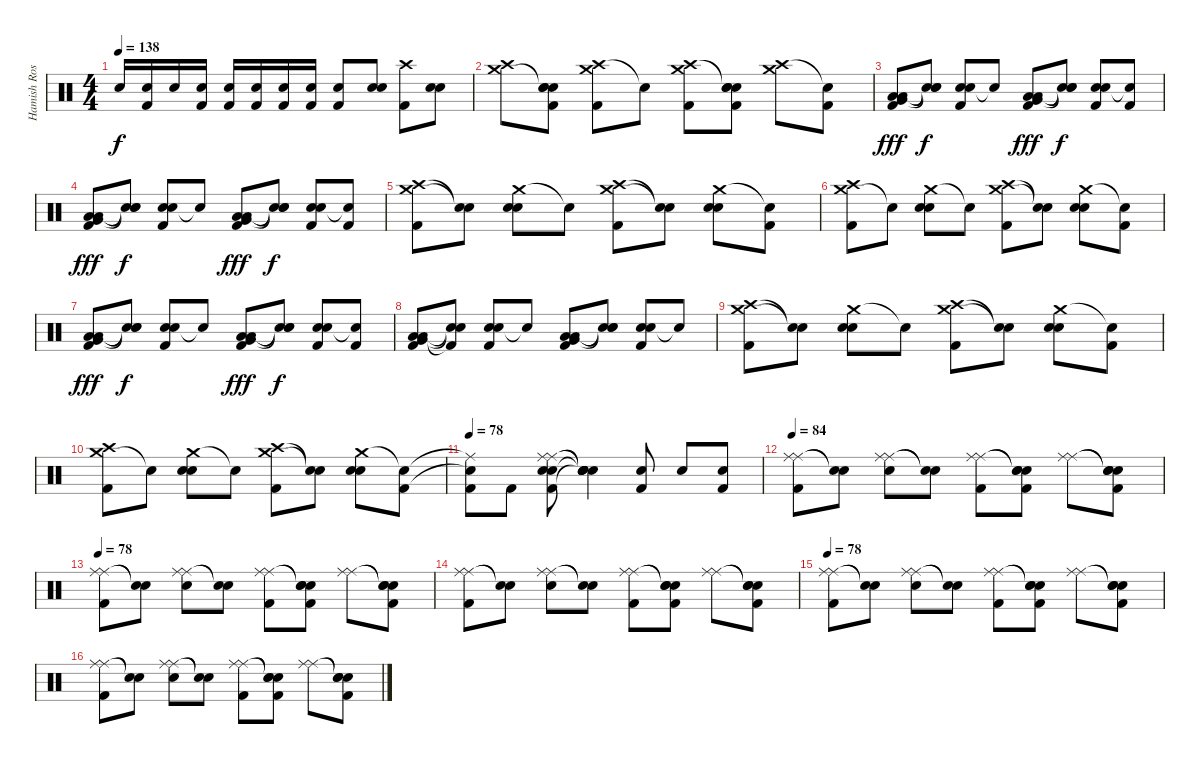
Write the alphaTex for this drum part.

\track ("Hamish Rosser" "Hamish Ros") {instrument percussion}
\staff {score}
\articulation defaults
\ts (4 4)
\tempo 138
\clef neutral
\ks c "Snare (hit) 2".16{dy f}
("Snare (hit) 2" "Kick (hit) 2").16 "Snare (hit) 2".16 ("Snare (hit) 2" "Kick (hit) 2").16 ("Snare (hit) 2" "Kick (hit) 2").16 ("Snare (hit) 2" "Kick (hit) 2").16 ("Snare (hit) 2" "Kick (hit) 2").16 ("Snare (hit) 2" "Kick (hit) 2").16 ("Snare (hit) 2" "Kick (hit) 2").8 ("Snare (hit) 2" "Snare (hit) 2").8 ("Crash high (hit)" "Kick (hit) 2").8 ("Snare (hit) 2" "Snare (hit) 2").8 |
("Crash medium (hit)" "Crash high (hit)").8 ("Snare (hit)"{t} "Snare (hit) 2" "Snare (hit) 2" "Kick (hit) 2").8 ("Crash high (hit)" "Crash medium (hit)" "Kick (hit) 2").8 "Snare (hit)"{t}.8 ("Crash high (hit)" "Crash medium (hit)" "Kick (hit) 2").8 ("Snare (hit)"{t} "Snare (hit) 2" "Snare (hit) 2" "Kick (hit) 2").8 ("Crash high (hit)" "Crash medium (hit)").8 ("Snare (hit)"{t} "Kick (hit) 2").8 |
("Very Low Tom (hit)" "Low Tom (hit)" "Low Tom (hit)" "Kick (hit) 2").8{dy fff} ("Snare (hit)"{t} "Snare (hit)"{t} "Snare (hit)"{t}).8{dy f} ("Snare (hit) 2" "Snare (hit) 2" "Kick (hit) 2").8 "Snare (hit)"{t}.8 ("Very Low Tom (hit)" "Low Tom (hit)" "Low Tom (hit)" "Kick (hit) 2").8{dy fff} ("Snare (hit)"{t} "Snare (hit) 2"{t} "Snare (hit)"{t}).8{dy f} ("Snare (hit) 2" "Snare (hit) 2" "Kick (hit) 2").8 ("Snare (hit)"{t} "Kick (hit) 2").8 |
("Very Low Tom (hit)" "Low Tom (hit)" "Low Tom (hit)" "Kick (hit) 2").8{dy fff} ("Snare (hit)"{t} "Snare (hit)"{t} "Snare (hit)"{t}).8{dy f} ("Snare (hit) 2" "Snare (hit) 2" "Kick (hit) 2").8 "Snare (hit)"{t}.8 ("Very Low Tom (hit)" "Low Tom (hit)" "Low Tom (hit)" "Kick (hit) 2").8{dy fff} ("Snare (hit)"{t} "Snare (hit) 2"{t} "Snare (hit)"{t}).8{dy f} ("Snare (hit) 2" "Snare (hit) 2" "Kick (hit) 2").8 ("Snare (hit)"{t} "Kick (hit) 2").8 |
("Crash medium (hit)" "Crash high (hit)" "Kick (hit) 2").8 ("Snare (hit)"{t} "Snare (hit)"{t}).8 ("Crash medium (hit)" "Snare (hit) 2" "Snare (hit) 2").8 "Snare (hit)"{t}.8 ("Crash medium (hit)" "Crash high (hit)" "Kick (hit) 2").8 ("Snare (hit)"{t} "Snare (hit)"{t}).8 ("Crash medium (hit)" "Snare (hit) 2" "Snare (hit) 2").8 ("Snare (hit)"{t} "Kick (hit) 2").8 |
("Crash medium (hit)" "Crash high (hit)" "Kick (hit) 2").8 "Snare (hit)"{t}.8 ("Crash medium (hit)" "Snare (hit) 2" "Snare (hit) 2").8 "Snare (hit)"{t}.8 ("Crash medium (hit)" "Crash high (hit)" "Kick (hit) 2").8 ("Snare (hit)"{t} "Snare (hit)"{t}).8 ("Crash medium (hit)" "Snare (hit) 2" "Snare (hit) 2").8 ("Snare (hit)"{t} "Kick (hit) 2").8 |
("Very Low Tom (hit)" "Low Tom (hit)" "Low Tom (hit)" "Kick (hit) 2").8{dy fff} ("Snare (hit)"{t} "Snare (hit)"{t} "Snare (hit)"{t}).8{dy f} ("Snare (hit) 2" "Snare (hit) 2" "Kick (hit) 2").8 "Snare (hit)"{t}.8 ("Very Low Tom (hit)" "Low Tom (hit)" "Low Tom (hit)" "Kick (hit) 2").8{dy fff} ("Snare (hit)"{t} "Snare (hit) 2"{t} "Snare (hit)"{t}).8{dy f} ("Snare (hit) 2" "Snare (hit) 2" "Kick (hit) 2").8 ("Snare (hit)"{t} "Kick (hit) 2").8 |
("Very Low Tom (hit)" "Low Tom (hit)" "Low Tom (hit)" "Kick (hit) 2").8 ("Snare (hit)"{t} "Snare (hit)"{t} "Kick (hit) 2"{t}).8 ("Snare (hit) 2" "Snare (hit) 2" "Kick (hit) 2").8 "Snare (hit)"{t}.8 ("Very Low Tom (hit)" "Low Tom (hit)" "Low Tom (hit)" "Kick (hit) 2").8 ("Snare (hit)"{t} "Snare (hit) 2"{t} "Snare (hit)"{t}).8 ("Snare (hit) 2" "Snare (hit) 2" "Kick (hit) 2").8 "Snare (hit)"{t}.8 |
("Crash medium (hit)" "Crash high (hit)" "Kick (hit) 2").8 ("Snare (hit)"{t} "Snare (hit)"{t}).8 ("Crash medium (hit)" "Snare (hit) 2" "Snare (hit) 2").8 "Snare (hit)"{t}.8 ("Crash medium (hit)" "Crash high (hit)" "Kick (hit) 2").8 ("Snare (hit)"{t} "Snare (hit)"{t}).8 ("Crash medium (hit)" "Snare (hit) 2" "Snare (hit) 2").8 ("Snare (hit)"{t} "Kick (hit) 2").8 |
("Crash medium (hit)" "Crash high (hit)" "Kick (hit) 2").8 "Snare (hit)"{t}.8 ("Crash medium (hit)" "Snare (hit) 2" "Snare (hit) 2").8 "Snare (hit)"{t}.8 ("Crash medium (hit)" "Crash high (hit)" "Kick (hit) 2").8 ("Snare (hit)"{t} "Snare (hit)"{t}).8 ("Crash medium (hit)" "Snare (hit) 2" "Snare (hit) 2").8 ("Snare (hit)"{t} "Kick (hit) 2").8 |
\tempo 78
("Ride (middle)"{t} "Snare (hit)"{t} "Kick (hit) 2").8 "Kick (hit) 2".8 ("Ride (middle)" "Ride (middle)" "Snare (hit) 2" "Snare (hit) 2" "Kick (hit) 2").8 ("Snare (hit)"{t} "Snare (hit)"{t} "Snare (hit) 2" "Snare (hit)"{t} "Snare (hit)"{t}).4 ("Snare (hit) 2" "Kick (hit) 2").8 "Snare (hit) 2".8 ("Snare (hit) 2" "Kick (hit) 2").8 |
\tempo 84
("Ride (middle)" "Ride (middle)" "Kick (hit) 2").8 ("Snare (hit)"{t} "Snare (hit)"{t}).8 ("Ride (middle)" "Ride (middle)" "Snare (hit) 2").8 ("Snare (hit)"{t} "Snare (hit)"{t}).8 ("Ride (middle)" "Ride (middle)" "Kick (hit) 2").8 ("Snare (hit)"{t} "Snare (hit)"{t} "Snare (hit) 2" "Kick (hit) 2").8 ("Ride (middle)" "Ride (middle)").8 ("Snare (hit)"{t} "Snare (hit)"{t} "Snare (hit) 2" "Kick (hit) 2").8 |
\tempo 78
("Ride (middle)" "Ride (middle)" "Kick (hit) 2").8 ("Snare (hit)"{t} "Snare (hit)"{t}).8 ("Ride (middle)" "Ride (middle)" "Snare (hit) 2").8 ("Snare (hit)"{t} "Snare (hit)"{t}).8 ("Ride (middle)" "Ride (middle)" "Kick (hit) 2").8 ("Snare (hit)"{t} "Snare (hit)"{t} "Snare (hit) 2" "Kick (hit) 2").8 ("Ride (middle)" "Ride (middle)").8 ("Snare (hit)"{t} "Snare (hit)"{t} "Snare (hit) 2" "Kick (hit) 2").8 |
("Ride (middle)" "Ride (middle)" "Kick (hit) 2").8 ("Snare (hit)"{t} "Snare (hit)"{t}).8 ("Ride (middle)" "Ride (middle)" "Snare (hit) 2").8 ("Snare (hit)"{t} "Snare (hit)"{t}).8 ("Ride (middle)" "Ride (middle)" "Kick (hit) 2").8 ("Snare (hit)"{t} "Snare (hit)"{t} "Snare (hit) 2" "Kick (hit) 2").8 ("Ride (middle)" "Ride (middle)").8 ("Snare (hit)"{t} "Snare (hit)"{t} "Snare (hit) 2" "Kick (hit) 2").8 |
\tempo 78
("Ride (middle)" "Ride (middle)" "Kick (hit) 2").8 ("Snare (hit)"{t} "Snare (hit)"{t}).8 ("Ride (middle)" "Ride (middle)" "Snare (hit) 2").8 ("Snare (hit)"{t} "Snare (hit)"{t}).8 ("Ride (middle)" "Ride (middle)" "Kick (hit) 2").8 ("Snare (hit)"{t} "Snare (hit)"{t} "Snare (hit) 2" "Kick (hit) 2").8 ("Ride (middle)" "Ride (middle)").8 ("Snare (hit)"{t} "Snare (hit)"{t} "Snare (hit) 2" "Kick (hit) 2").8 |
("Ride (middle)" "Ride (middle)" "Kick (hit) 2").8 ("Snare (hit)"{t} "Snare (hit)"{t}).8 ("Ride (middle)" "Ride (middle)" "Snare (hit) 2").8 ("Snare (hit)"{t} "Snare (hit)"{t}).8 ("Ride (middle)" "Ride (middle)" "Kick (hit) 2").8 ("Snare (hit)"{t} "Snare (hit)"{t} "Snare (hit) 2" "Kick (hit) 2").8 ("Ride (middle)" "Ride (middle)").8 ("Snare (hit)"{t} "Snare (hit)"{t} "Snare (hit) 2" "Kick (hit) 2").8
